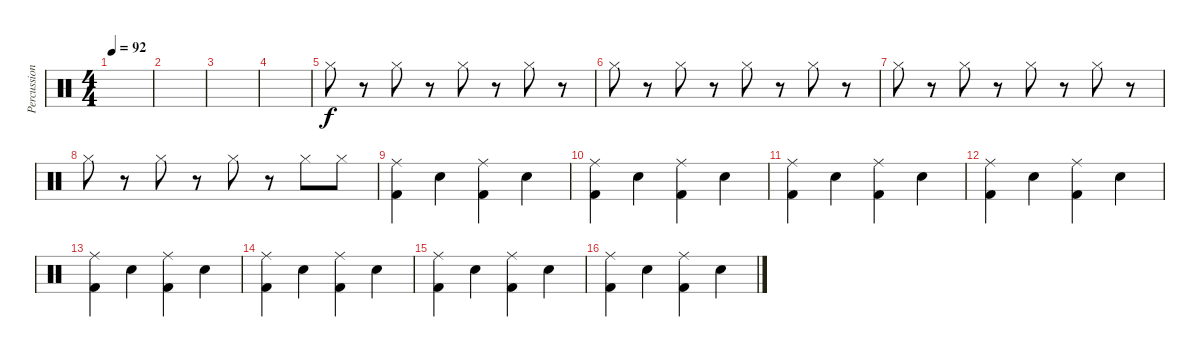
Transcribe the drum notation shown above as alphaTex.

\track ("Percussions" "Percussion") {instrument percussion}
\staff {score}
\articulation defaults
\ts (4 4)
\tempo 92
\clef neutral
\ks c
|
|
|
|
"Hi-Hat (closed)".8 r.8 "Hi-Hat (closed)".8 r.8 "Hi-Hat (closed)".8 r.8 "Hi-Hat (closed)".8 r.8 |
"Hi-Hat (closed)".8 r.8 "Hi-Hat (closed)".8 r.8 "Hi-Hat (closed)".8 r.8 "Hi-Hat (closed)".8 r.8 |
"Hi-Hat (closed)".8 r.8 "Hi-Hat (closed)".8 r.8 "Hi-Hat (closed)".8 r.8 "Hi-Hat (closed)".8 r.8 |
"Hi-Hat (closed)".8 r.8 "Hi-Hat (closed)".8 r.8 "Hi-Hat (closed)".8 r.8 "Hi-Hat (closed)".8 "Hi-Hat (closed)".8 |
("Kick (hit) 2" "Ride (middle)").4 "Snare (hit) 2".4 ("Kick (hit) 2" "Ride (middle)").4 "Snare (hit) 2".4 |
("Kick (hit) 2" "Ride (middle)").4 "Snare (hit) 2".4 ("Kick (hit) 2" "Ride (middle)").4 "Snare (hit) 2".4 |
("Kick (hit) 2" "Ride (middle)").4 "Snare (hit) 2".4 ("Kick (hit) 2" "Ride (middle)").4 "Snare (hit) 2".4 |
("Kick (hit) 2" "Ride (middle)").4 "Snare (hit) 2".4 ("Kick (hit) 2" "Ride (middle)").4 "Snare (hit) 2".4 |
("Kick (hit) 2" "Ride (middle)").4 "Snare (hit) 2".4 ("Kick (hit) 2" "Ride (middle)").4 "Snare (hit) 2".4 |
("Kick (hit) 2" "Ride (middle)").4 "Snare (hit) 2".4 ("Kick (hit) 2" "Ride (middle)").4 "Snare (hit) 2".4 |
("Kick (hit) 2" "Ride (middle)").4 "Snare (hit) 2".4 ("Kick (hit) 2" "Ride (middle)").4 "Snare (hit) 2".4 |
("Kick (hit) 2" "Ride (middle)").4 "Snare (hit) 2".4 ("Kick (hit) 2" "Ride (middle)").4 "Snare (hit) 2".4
